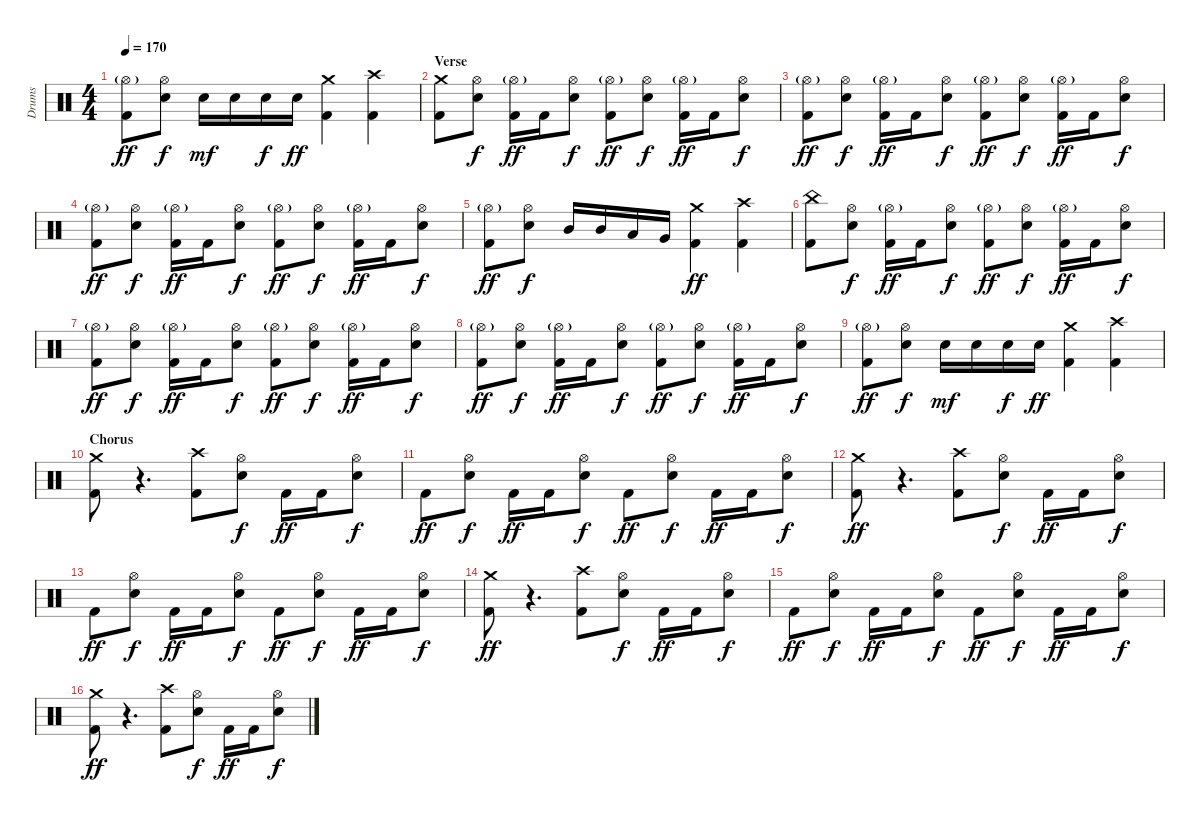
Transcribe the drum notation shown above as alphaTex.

\track ("Drums" "Drums") {instrument percussion}
\staff {score}
\articulation defaults
\ts (4 4)
\tempo 170
\clef neutral
\ks c
("Hi-Hat (open)"{g} "Kick (hit) 2").8{dy ff} ("Hi-Hat (open)" "Electric Snare (hit)").8{dy f} "Electric Snare (hit)".16{dy mf} "Electric Snare (hit)".16 "Electric Snare (hit)".16{dy f} "Electric Snare (hit)".16{dy ff} ("Crash medium (hit)" "Kick (hit) 2").4 ("Crash high (hit)" "Kick (hit) 2").4 |
\section ("" "Verse")
("Crash medium (hit)" "Kick (hit) 2").8 ("Hi-Hat (open)" "Electric Snare (hit)").8{dy f} ("Hi-Hat (open)"{g} "Kick (hit) 2").16{dy ff} "Kick (hit) 2".16 ("Hi-Hat (open)" "Electric Snare (hit)").8{dy f} ("Hi-Hat (open)"{g} "Kick (hit) 2").8{dy ff} ("Hi-Hat (open)" "Electric Snare (hit)").8{dy f} ("Hi-Hat (open)"{g} "Kick (hit) 2").16{dy ff} "Kick (hit) 2".16 ("Hi-Hat (open)" "Electric Snare (hit)").8{dy f} |
("Hi-Hat (open)"{g} "Kick (hit) 2").8{dy ff} ("Hi-Hat (open)" "Electric Snare (hit)").8{dy f} ("Hi-Hat (open)"{g} "Kick (hit) 2").16{dy ff} "Kick (hit) 2".16 ("Hi-Hat (open)" "Electric Snare (hit)").8{dy f} ("Hi-Hat (open)"{g} "Kick (hit) 2").8{dy ff} ("Hi-Hat (open)" "Electric Snare (hit)").8{dy f} ("Hi-Hat (open)"{g} "Kick (hit) 2").16{dy ff} "Kick (hit) 2".16 ("Hi-Hat (open)" "Electric Snare (hit)").8{dy f} |
("Hi-Hat (open)"{g} "Kick (hit) 2").8{dy ff} ("Hi-Hat (open)" "Electric Snare (hit)").8{dy f} ("Hi-Hat (open)"{g} "Kick (hit) 2").16{dy ff} "Kick (hit) 2".16 ("Hi-Hat (open)" "Electric Snare (hit)").8{dy f} ("Hi-Hat (open)"{g} "Kick (hit) 2").8{dy ff} ("Hi-Hat (open)" "Electric Snare (hit)").8{dy f} ("Hi-Hat (open)"{g} "Kick (hit) 2").16{dy ff} "Kick (hit) 2".16 ("Hi-Hat (open)" "Electric Snare (hit)").8{dy f} |
("Hi-Hat (open)"{g} "Kick (hit) 2").8{dy ff} ("Hi-Hat (open)" "Electric Snare (hit)").8{dy f} "Mid Tom (hit)".16 "Mid Tom (hit)".16 "Low Tom (hit)".16 "Very Low Tom (hit)".16 ("Crash medium (hit)" "Kick (hit) 2").4{dy ff} ("Crash high (hit)" "Kick (hit) 2").4 |
("China (hit)" "Kick (hit) 2").8 ("Hi-Hat (open)" "Electric Snare (hit)").8{dy f} ("Hi-Hat (open)"{g} "Kick (hit) 2").16{dy ff} "Kick (hit) 2".16 ("Hi-Hat (open)" "Electric Snare (hit)").8{dy f} ("Hi-Hat (open)"{g} "Kick (hit) 2").8{dy ff} ("Hi-Hat (open)" "Electric Snare (hit)").8{dy f} ("Hi-Hat (open)"{g} "Kick (hit) 2").16{dy ff} "Kick (hit) 2".16 ("Hi-Hat (open)" "Electric Snare (hit)").8{dy f} |
("Hi-Hat (open)"{g} "Kick (hit) 2").8{dy ff} ("Hi-Hat (open)" "Electric Snare (hit)").8{dy f} ("Hi-Hat (open)"{g} "Kick (hit) 2").16{dy ff} "Kick (hit) 2".16 ("Hi-Hat (open)" "Electric Snare (hit)").8{dy f} ("Hi-Hat (open)"{g} "Kick (hit) 2").8{dy ff} ("Hi-Hat (open)" "Electric Snare (hit)").8{dy f} ("Hi-Hat (open)"{g} "Kick (hit) 2").16{dy ff} "Kick (hit) 2".16 ("Hi-Hat (open)" "Electric Snare (hit)").8{dy f} |
("Hi-Hat (open)"{g} "Kick (hit) 2").8{dy ff} ("Hi-Hat (open)" "Electric Snare (hit)").8{dy f} ("Hi-Hat (open)"{g} "Kick (hit) 2").16{dy ff} "Kick (hit) 2".16 ("Hi-Hat (open)" "Electric Snare (hit)").8{dy f} ("Hi-Hat (open)"{g} "Kick (hit) 2").8{dy ff} ("Hi-Hat (open)" "Electric Snare (hit)").8{dy f} ("Hi-Hat (open)"{g} "Kick (hit) 2").16{dy ff} "Kick (hit) 2".16 ("Hi-Hat (open)" "Electric Snare (hit)").8{dy f} |
("Hi-Hat (open)"{g} "Kick (hit) 2").8{dy ff} ("Hi-Hat (open)" "Electric Snare (hit)").8{dy f} "Electric Snare (hit)".16{dy mf} "Electric Snare (hit)".16 "Electric Snare (hit)".16{dy f} "Electric Snare (hit)".16{dy ff} ("Crash medium (hit)" "Kick (hit) 2").4 ("Crash high (hit)" "Kick (hit) 2").4 |
\section ("" "Chorus")
("Crash medium (hit)" "Kick (hit) 2").8 r.4{d volume 4} ("Crash high (hit)" "Kick (hit) 2").8{volume 13} ("Hi-Hat (open)" "Electric Snare (hit)").8{dy f} "Kick (hit) 2".16{dy ff} "Kick (hit) 2".16 ("Hi-Hat (open)" "Electric Snare (hit)").8{dy f} |
"Kick (hit) 2".8{dy ff} ("Hi-Hat (open)" "Electric Snare (hit)").8{dy f} "Kick (hit) 2".16{dy ff} "Kick (hit) 2".16 ("Hi-Hat (open)" "Electric Snare (hit)").8{dy f} "Kick (hit) 2".8{dy ff} ("Hi-Hat (open)" "Electric Snare (hit)").8{dy f} "Kick (hit) 2".16{dy ff} "Kick (hit) 2".16 ("Hi-Hat (open)" "Electric Snare (hit)").8{dy f} |
("Crash medium (hit)" "Kick (hit) 2").8{dy ff volume 13} r.4{d volume 4} ("Crash high (hit)" "Kick (hit) 2").8{volume 13} ("Hi-Hat (open)" "Electric Snare (hit)").8{dy f} "Kick (hit) 2".16{dy ff} "Kick (hit) 2".16 ("Hi-Hat (open)" "Electric Snare (hit)").8{dy f} |
"Kick (hit) 2".8{dy ff} ("Hi-Hat (open)" "Electric Snare (hit)").8{dy f} "Kick (hit) 2".16{dy ff} "Kick (hit) 2".16 ("Hi-Hat (open)" "Electric Snare (hit)").8{dy f} "Kick (hit) 2".8{dy ff} ("Hi-Hat (open)" "Electric Snare (hit)").8{dy f} "Kick (hit) 2".16{dy ff} "Kick (hit) 2".16 ("Hi-Hat (open)" "Electric Snare (hit)").8{dy f} |
("Crash medium (hit)" "Kick (hit) 2").8{dy ff volume 13} r.4{d volume 4} ("Crash high (hit)" "Kick (hit) 2").8{volume 13} ("Hi-Hat (open)" "Electric Snare (hit)").8{dy f} "Kick (hit) 2".16{dy ff} "Kick (hit) 2".16 ("Hi-Hat (open)" "Electric Snare (hit)").8{dy f} |
"Kick (hit) 2".8{dy ff} ("Hi-Hat (open)" "Electric Snare (hit)").8{dy f} "Kick (hit) 2".16{dy ff} "Kick (hit) 2".16 ("Hi-Hat (open)" "Electric Snare (hit)").8{dy f} "Kick (hit) 2".8{dy ff} ("Hi-Hat (open)" "Electric Snare (hit)").8{dy f} "Kick (hit) 2".16{dy ff} "Kick (hit) 2".16 ("Hi-Hat (open)" "Electric Snare (hit)").8{dy f} |
("Crash medium (hit)" "Kick (hit) 2").8{dy ff volume 13} r.4{d volume 4} ("Crash high (hit)" "Kick (hit) 2").8{volume 13} ("Hi-Hat (open)" "Electric Snare (hit)").8{dy f} "Kick (hit) 2".16{dy ff} "Kick (hit) 2".16 ("Hi-Hat (open)" "Electric Snare (hit)").8{dy f}
